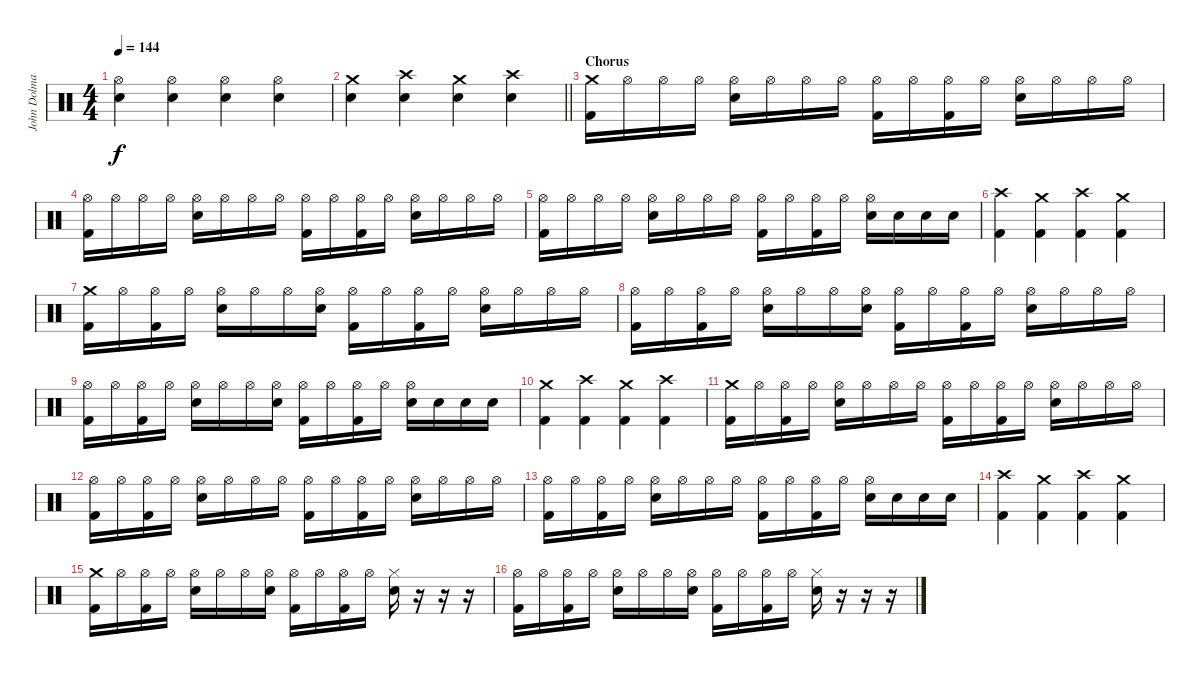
\track ("John Dolmayan" "John Dolma") {instrument percussion}
\staff {score}
\articulation defaults
\ts (4 4)
\tempo 144
\clef neutral
\ks c
("Hi-Hat (open)" "Electric Snare (hit)").4{dy f} ("Hi-Hat (open)" "Electric Snare (hit)").4 ("Hi-Hat (open)" "Electric Snare (hit)").4 ("Hi-Hat (open)" "Electric Snare (hit)").4 |
\barLineRight lightlight
("Crash medium (hit)" "Electric Snare (hit)").4 ("Crash high (hit)" "Electric Snare (hit)").4 ("Crash medium (hit)" "Electric Snare (hit)").4 ("Crash high (hit)" "Electric Snare (hit)").4 |
\section ("" "Chorus")
("Crash medium (hit)" "Kick (hit) 2").16 "Hi-Hat (open)".16 "Hi-Hat (open)".16 "Hi-Hat (open)".16 ("Hi-Hat (open)" "Electric Snare (hit)").16 "Hi-Hat (open)".16 "Hi-Hat (open)".16 "Hi-Hat (open)".16 ("Hi-Hat (open)" "Kick (hit) 2").16 "Hi-Hat (open)".16 ("Hi-Hat (open)" "Kick (hit) 2").16 "Hi-Hat (open)".16 ("Hi-Hat (open)" "Electric Snare (hit)").16 "Hi-Hat (open)".16 "Hi-Hat (open)".16 "Hi-Hat (open)".16 |
("Hi-Hat (open)" "Kick (hit) 2").16 "Hi-Hat (open)".16 "Hi-Hat (open)".16 "Hi-Hat (open)".16 ("Hi-Hat (open)" "Electric Snare (hit)").16 "Hi-Hat (open)".16 "Hi-Hat (open)".16 "Hi-Hat (open)".16 ("Hi-Hat (open)" "Kick (hit) 2").16 "Hi-Hat (open)".16 ("Hi-Hat (open)" "Kick (hit) 2").16 "Hi-Hat (open)".16 ("Hi-Hat (open)" "Electric Snare (hit)").16 "Hi-Hat (open)".16 "Hi-Hat (open)".16 "Hi-Hat (open)".16 |
("Hi-Hat (open)" "Kick (hit) 2").16 "Hi-Hat (open)".16 "Hi-Hat (open)".16 "Hi-Hat (open)".16 ("Hi-Hat (open)" "Electric Snare (hit)").16 "Hi-Hat (open)".16 "Hi-Hat (open)".16 "Hi-Hat (open)".16 ("Hi-Hat (open)" "Kick (hit) 2").16 "Hi-Hat (open)".16 ("Hi-Hat (open)" "Kick (hit) 2").16 "Hi-Hat (open)".16 ("Hi-Hat (open)" "Electric Snare (hit)").16 "Electric Snare (hit)".16 "Electric Snare (hit)".16 "Electric Snare (hit)".16 |
("Crash high (hit)" "Kick (hit) 2").4 ("Crash medium (hit)" "Kick (hit) 2").4 ("Crash high (hit)" "Kick (hit) 2").4 ("Crash medium (hit)" "Kick (hit) 2").4 |
("Crash medium (hit)" "Kick (hit) 2").16 "Hi-Hat (open)".16 ("Hi-Hat (open)" "Kick (hit) 2").16 "Hi-Hat (open)".16 ("Hi-Hat (open)" "Electric Snare (hit)").16 "Hi-Hat (open)".16 "Hi-Hat (open)".16 ("Hi-Hat (open)" "Electric Snare (hit)").16 ("Hi-Hat (open)" "Kick (hit) 2").16 "Hi-Hat (open)".16 ("Hi-Hat (open)" "Kick (hit) 2").16 "Hi-Hat (open)".16 ("Hi-Hat (open)" "Electric Snare (hit)").16 "Hi-Hat (open)".16 "Hi-Hat (open)".16 "Hi-Hat (open)".16 |
("Hi-Hat (open)" "Kick (hit) 2").16 "Hi-Hat (open)".16 ("Hi-Hat (open)" "Kick (hit) 2").16 "Hi-Hat (open)".16 ("Hi-Hat (open)" "Electric Snare (hit)").16 "Hi-Hat (open)".16 "Hi-Hat (open)".16 ("Hi-Hat (open)" "Electric Snare (hit)").16 ("Hi-Hat (open)" "Kick (hit) 2").16 "Hi-Hat (open)".16 ("Hi-Hat (open)" "Kick (hit) 2").16 "Hi-Hat (open)".16 ("Hi-Hat (open)" "Electric Snare (hit)").16 "Hi-Hat (open)".16 "Hi-Hat (open)".16 "Hi-Hat (open)".16 |
("Hi-Hat (open)" "Kick (hit) 2").16 "Hi-Hat (open)".16 ("Hi-Hat (open)" "Kick (hit) 2").16 "Hi-Hat (open)".16 ("Hi-Hat (open)" "Electric Snare (hit)").16 "Hi-Hat (open)".16 "Hi-Hat (open)".16 ("Hi-Hat (open)" "Electric Snare (hit)").16 ("Hi-Hat (open)" "Kick (hit) 2").16 "Hi-Hat (open)".16 ("Hi-Hat (open)" "Kick (hit) 2").16 "Hi-Hat (open)".16 ("Hi-Hat (open)" "Electric Snare (hit)").16 "Electric Snare (hit)".16 "Electric Snare (hit)".16 "Electric Snare (hit)".16 |
("Crash medium (hit)" "Kick (hit) 2").4 ("Crash high (hit)" "Kick (hit) 2").4 ("Crash medium (hit)" "Kick (hit) 2").4 ("Crash high (hit)" "Kick (hit) 2").4 |
("Crash medium (hit)" "Kick (hit) 2").16 "Hi-Hat (open)".16 ("Hi-Hat (open)" "Kick (hit) 2").16 "Hi-Hat (open)".16 ("Hi-Hat (open)" "Electric Snare (hit)").16 "Hi-Hat (open)".16 "Hi-Hat (open)".16 "Hi-Hat (open)".16 ("Hi-Hat (open)" "Kick (hit) 2").16 "Hi-Hat (open)".16 ("Hi-Hat (open)" "Kick (hit) 2").16 "Hi-Hat (open)".16 ("Hi-Hat (open)" "Electric Snare (hit)").16 "Hi-Hat (open)".16 "Hi-Hat (open)".16 "Hi-Hat (open)".16 |
("Hi-Hat (open)" "Kick (hit) 2").16 "Hi-Hat (open)".16 ("Hi-Hat (open)" "Kick (hit) 2").16 "Hi-Hat (open)".16 ("Hi-Hat (open)" "Electric Snare (hit)").16 "Hi-Hat (open)".16 "Hi-Hat (open)".16 "Hi-Hat (open)".16 ("Hi-Hat (open)" "Kick (hit) 2").16 "Hi-Hat (open)".16 ("Hi-Hat (open)" "Kick (hit) 2").16 "Hi-Hat (open)".16 ("Hi-Hat (open)" "Electric Snare (hit)").16 "Hi-Hat (open)".16 "Hi-Hat (open)".16 "Hi-Hat (open)".16 |
("Hi-Hat (open)" "Kick (hit) 2").16 "Hi-Hat (open)".16 ("Hi-Hat (open)" "Kick (hit) 2").16 "Hi-Hat (open)".16 ("Hi-Hat (open)" "Electric Snare (hit)").16 "Hi-Hat (open)".16 "Hi-Hat (open)".16 "Hi-Hat (open)".16 ("Hi-Hat (open)" "Kick (hit) 2").16 "Hi-Hat (open)".16 ("Hi-Hat (open)" "Kick (hit) 2").16 "Hi-Hat (open)".16 ("Hi-Hat (open)" "Electric Snare (hit)").16 "Electric Snare (hit)".16 "Electric Snare (hit)".16 "Electric Snare (hit)".16 |
("Crash high (hit)" "Kick (hit) 2").4 ("Crash medium (hit)" "Kick (hit) 2").4 ("Crash high (hit)" "Kick (hit) 2").4 ("Crash medium (hit)" "Kick (hit) 2").4 |
("Crash medium (hit)" "Kick (hit) 2").16 "Hi-Hat (open)".16 ("Hi-Hat (open)" "Kick (hit) 2").16 "Hi-Hat (open)".16 ("Hi-Hat (open)" "Electric Snare (hit)").16 "Hi-Hat (open)".16 "Hi-Hat (open)".16 ("Hi-Hat (open)" "Electric Snare (hit)").16 ("Hi-Hat (open)" "Kick (hit) 2").16 "Hi-Hat (open)".16 ("Hi-Hat (open)" "Kick (hit) 2").16 "Hi-Hat (open)".16 ("Hi-Hat (closed)" "Electric Snare (hit)").16 r.16 r.16 r.16 |
("Hi-Hat (open)" "Kick (hit) 2").16 "Hi-Hat (open)".16 ("Hi-Hat (open)" "Kick (hit) 2").16 "Hi-Hat (open)".16 ("Hi-Hat (open)" "Electric Snare (hit)").16 "Hi-Hat (open)".16 "Hi-Hat (open)".16 ("Hi-Hat (open)" "Electric Snare (hit)").16 ("Hi-Hat (open)" "Kick (hit) 2").16 "Hi-Hat (open)".16 ("Hi-Hat (open)" "Kick (hit) 2").16 "Hi-Hat (open)".16 ("Hi-Hat (closed)" "Electric Snare (hit)").16 r.16 r.16 r.16
